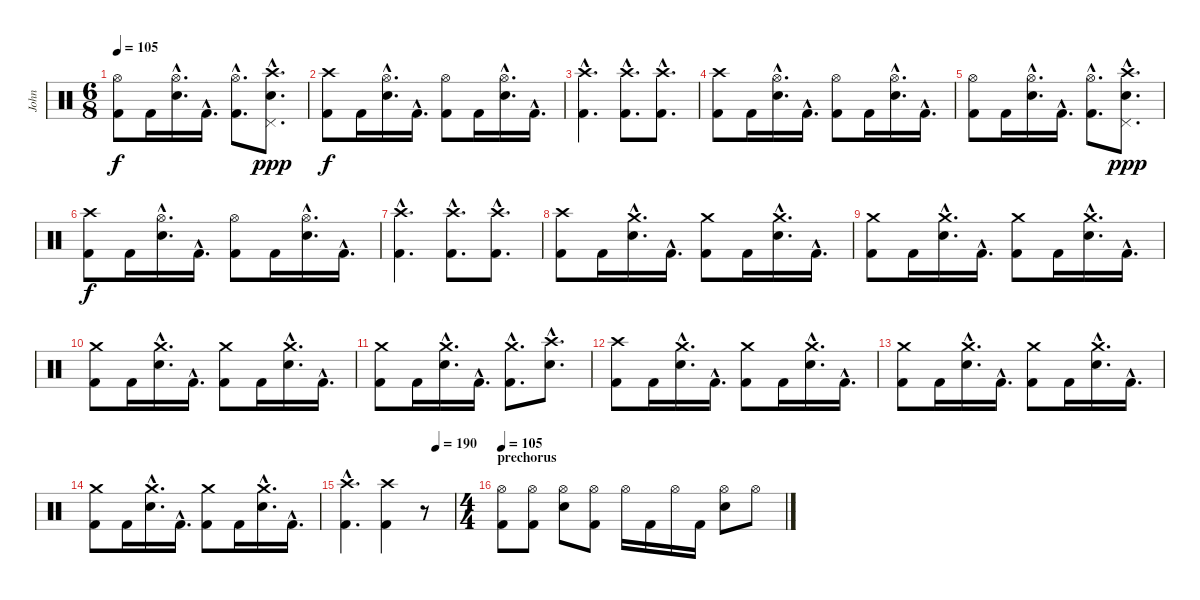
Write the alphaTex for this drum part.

\track ("John" "John") {instrument percussion}
\staff {score}
\articulation defaults
\ts (6 8)
\tempo 105
\clef neutral
\ks c
("Hi-Hat (open)" "Kick (hit) 2").8{dy f} "Kick (hit) 2".16 ("Hi-Hat (open)"{hac} "Electric Snare (hit)"{hac}).16{d} "Kick (hit) 2"{hac}.16{d} ("Hi-Hat (open)"{hac} "Kick (hit) 2"{hac}).8{d} ("Crash high (hit)"{hac} "Pedal Hi-Hat (hit)"{hac} "Electric Snare (hit)"{hac}).8{d dy ppp} |
("Crash high (hit)" "Kick (hit) 2").8{dy f} "Kick (hit) 2".16 ("Hi-Hat (open)"{hac} "Electric Snare (hit)"{hac}).16{d} "Kick (hit) 2"{hac}.16{d} ("Hi-Hat (open)" "Kick (hit) 2").8 "Kick (hit) 2".16 ("Hi-Hat (open)"{hac} "Electric Snare (hit)"{hac}).16{d} "Kick (hit) 2"{hac}.16{d} |
("Crash high (hit)"{hac} "Kick (hit) 2"{hac}).4{d} ("Crash high (hit)"{hac} "Kick (hit) 2"{hac}).8{d} ("Crash high (hit)"{hac} "Kick (hit) 2"{hac}).8{d} |
("Crash high (hit)" "Kick (hit) 2").8 "Kick (hit) 2".16 ("Hi-Hat (open)"{hac} "Electric Snare (hit)"{hac}).16{d} "Kick (hit) 2"{hac}.16{d} ("Hi-Hat (open)" "Kick (hit) 2").8 "Kick (hit) 2".16 ("Hi-Hat (open)"{hac} "Electric Snare (hit)"{hac}).16{d} "Kick (hit) 2"{hac}.16{d} |
("Hi-Hat (open)" "Kick (hit) 2").8 "Kick (hit) 2".16 ("Hi-Hat (open)"{hac} "Electric Snare (hit)"{hac}).16{d} "Kick (hit) 2"{hac}.16{d} ("Hi-Hat (open)"{hac} "Kick (hit) 2"{hac}).8{d} ("Crash high (hit)"{hac} "Pedal Hi-Hat (hit)"{hac} "Electric Snare (hit)"{hac}).8{d dy ppp} |
("Crash high (hit)" "Kick (hit) 2").8{dy f} "Kick (hit) 2".16 ("Hi-Hat (open)"{hac} "Electric Snare (hit)"{hac}).16{d} "Kick (hit) 2"{hac}.16{d} ("Hi-Hat (open)" "Kick (hit) 2").8 "Kick (hit) 2".16 ("Hi-Hat (open)"{hac} "Electric Snare (hit)"{hac}).16{d} "Kick (hit) 2"{hac}.16{d} |
("Crash high (hit)"{hac} "Kick (hit) 2"{hac}).4{d} ("Crash high (hit)"{hac} "Kick (hit) 2"{hac}).8{d} ("Crash high (hit)"{hac} "Kick (hit) 2"{hac}).8{d} |
("Crash high (hit)" "Kick (hit) 2").8 "Kick (hit) 2".16 ("Crash medium (hit)"{hac} "Electric Snare (hit)"{hac}).16{d} "Kick (hit) 2"{hac}.16{d} ("Crash medium (hit)" "Kick (hit) 2").8 "Kick (hit) 2".16 ("Crash medium (hit)"{hac} "Electric Snare (hit)"{hac}).16{d} "Kick (hit) 2"{hac}.16{d} |
("Crash medium (hit)" "Kick (hit) 2").8 "Kick (hit) 2".16 ("Crash medium (hit)"{hac} "Electric Snare (hit)"{hac}).16{d} "Kick (hit) 2"{hac}.16{d} ("Crash medium (hit)" "Kick (hit) 2").8 "Kick (hit) 2".16 ("Crash medium (hit)"{hac} "Electric Snare (hit)"{hac}).16{d} "Kick (hit) 2"{hac}.16{d} |
("Crash medium (hit)" "Kick (hit) 2").8 "Kick (hit) 2".16 ("Crash medium (hit)"{hac} "Electric Snare (hit)"{hac}).16{d} "Kick (hit) 2"{hac}.16{d} ("Crash medium (hit)" "Kick (hit) 2").8 "Kick (hit) 2".16 ("Crash medium (hit)"{hac} "Electric Snare (hit)"{hac}).16{d} "Kick (hit) 2"{hac}.16{d} |
("Crash medium (hit)" "Kick (hit) 2").8 "Kick (hit) 2".16 ("Crash medium (hit)"{hac} "Electric Snare (hit)"{hac}).16{d} "Kick (hit) 2"{hac}.16{d} ("Crash medium (hit)"{hac} "Kick (hit) 2"{hac}).8{d} ("Crash high (hit)"{hac} "Electric Snare (hit)"{hac}).8{d} |
("Crash high (hit)" "Kick (hit) 2").8 "Kick (hit) 2".16 ("Crash medium (hit)"{hac} "Electric Snare (hit)"{hac}).16{d} "Kick (hit) 2"{hac}.16{d} ("Crash medium (hit)" "Kick (hit) 2").8 "Kick (hit) 2".16 ("Crash medium (hit)"{hac} "Electric Snare (hit)"{hac}).16{d} "Kick (hit) 2"{hac}.16{d} |
("Crash medium (hit)" "Kick (hit) 2").8 "Kick (hit) 2".16 ("Crash medium (hit)"{hac} "Electric Snare (hit)"{hac}).16{d} "Kick (hit) 2"{hac}.16{d} ("Crash medium (hit)" "Kick (hit) 2").8 "Kick (hit) 2".16 ("Crash medium (hit)"{hac} "Electric Snare (hit)"{hac}).16{d} "Kick (hit) 2"{hac}.16{d} |
("Crash medium (hit)" "Kick (hit) 2").8 "Kick (hit) 2".16 ("Crash medium (hit)"{hac} "Electric Snare (hit)"{hac}).16{d} "Kick (hit) 2"{hac}.16{d} ("Crash medium (hit)" "Kick (hit) 2").8 "Kick (hit) 2".16 ("Crash medium (hit)"{hac} "Electric Snare (hit)"{hac}).16{d} "Kick (hit) 2"{hac}.16{d} |
\tempo (190 0.8333333333333334)
("Crash high (hit)"{hac} "Kick (hit) 2"{hac}).4{d} ("Crash high (hit)" "Kick (hit) 2").4 r.8 |
\ts (4 4)
\section ("" "prechorus")
\tempo 105
("Hi-Hat (open)" "Kick (hit) 2").8 ("Hi-Hat (open)" "Kick (hit) 2").8 ("Hi-Hat (open)" "Electric Snare (hit)").8 ("Hi-Hat (open)" "Kick (hit) 2").8 "Hi-Hat (open)".16 "Kick (hit) 2".16 "Hi-Hat (open)".16 "Kick (hit) 2".16 ("Hi-Hat (open)" "Electric Snare (hit)").8 "Hi-Hat (open)".8
